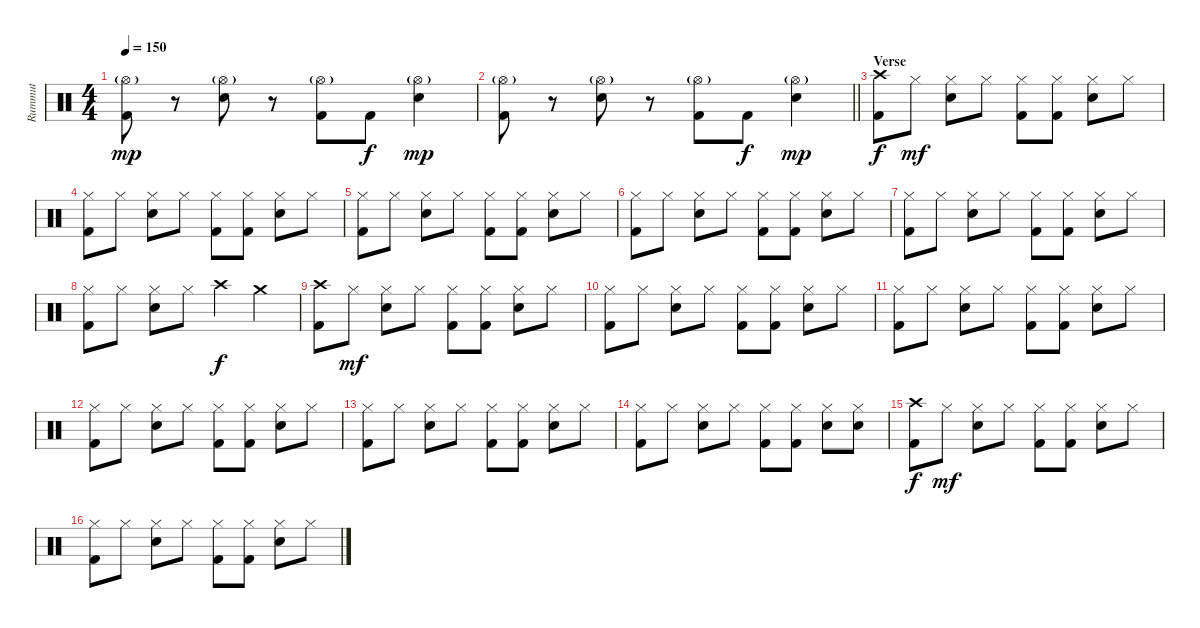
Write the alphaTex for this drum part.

\track ("Rummut" "Rummut") {instrument percussion bank 69}
\staff {score}
\articulation defaults
\ts (4 4)
\tempo 150
\clef neutral
\ks c
("Hi-Hat (open)"{g} "Kick (hit) 2").8{dy mp} r.8 ("Hi-Hat (open)"{g} "Snare (hit) 2").8 r.8 ("Hi-Hat (open)"{g} "Kick (hit) 2").8 "Kick (hit) 2".8{dy f} ("Hi-Hat (open)"{g} "Snare (hit) 2").4{dy mp} |
\barLineRight lightlight
("Hi-Hat (open)"{g} "Kick (hit) 2").8 r.8 ("Hi-Hat (open)"{g} "Snare (hit) 2").8 r.8 ("Hi-Hat (open)"{g} "Kick (hit) 2").8 "Kick (hit) 2".8{dy f} ("Hi-Hat (open)"{g} "Snare (hit) 2").4{dy mp} |
\section ("" "Verse")
("Crash high (hit)" "Kick (hit) 2").8{dy f} "Hi-Hat (closed)".8{dy mf} ("Hi-Hat (closed)" "Snare (hit) 2").8 "Hi-Hat (closed)".8 ("Hi-Hat (closed)" "Kick (hit) 2").8 ("Hi-Hat (closed)" "Kick (hit) 2").8 ("Hi-Hat (closed)" "Snare (hit) 2").8 "Hi-Hat (closed)".8 |
("Hi-Hat (closed)" "Kick (hit) 2").8 "Hi-Hat (closed)".8 ("Hi-Hat (closed)" "Snare (hit) 2").8 "Hi-Hat (closed)".8 ("Hi-Hat (closed)" "Kick (hit) 2").8 ("Hi-Hat (closed)" "Kick (hit) 2").8 ("Hi-Hat (closed)" "Snare (hit) 2").8 "Hi-Hat (closed)".8 |
("Hi-Hat (closed)" "Kick (hit) 2").8 "Hi-Hat (closed)".8 ("Hi-Hat (closed)" "Snare (hit) 2").8 "Hi-Hat (closed)".8 ("Hi-Hat (closed)" "Kick (hit) 2").8 ("Hi-Hat (closed)" "Kick (hit) 2").8 ("Hi-Hat (closed)" "Snare (hit) 2").8 "Hi-Hat (closed)".8 |
("Hi-Hat (closed)" "Kick (hit) 2").8 "Hi-Hat (closed)".8 ("Hi-Hat (closed)" "Snare (hit) 2").8 "Hi-Hat (closed)".8 ("Hi-Hat (closed)" "Kick (hit) 2").8 ("Hi-Hat (closed)" "Kick (hit) 2").8 ("Hi-Hat (closed)" "Snare (hit) 2").8 "Hi-Hat (closed)".8 |
("Hi-Hat (closed)" "Kick (hit) 2").8 "Hi-Hat (closed)".8 ("Hi-Hat (closed)" "Snare (hit) 2").8 "Hi-Hat (closed)".8 ("Hi-Hat (closed)" "Kick (hit) 2").8 ("Hi-Hat (closed)" "Kick (hit) 2").8 ("Hi-Hat (closed)" "Snare (hit) 2").8 "Hi-Hat (closed)".8 |
("Hi-Hat (closed)" "Kick (hit) 2").8 "Hi-Hat (closed)".8 ("Hi-Hat (closed)" "Snare (hit) 2").8 "Hi-Hat (closed)".8 "Crash high (hit)".4{dy f} "Crash medium (hit)".4 |
("Crash high (hit)" "Kick (hit) 2").8 "Hi-Hat (closed)".8{dy mf} ("Hi-Hat (closed)" "Snare (hit) 2").8 "Hi-Hat (closed)".8 ("Hi-Hat (closed)" "Kick (hit) 2").8 ("Hi-Hat (closed)" "Kick (hit) 2").8 ("Hi-Hat (closed)" "Snare (hit) 2").8 "Hi-Hat (closed)".8 |
("Hi-Hat (closed)" "Kick (hit) 2").8 "Hi-Hat (closed)".8 ("Hi-Hat (closed)" "Snare (hit) 2").8 "Hi-Hat (closed)".8 ("Hi-Hat (closed)" "Kick (hit) 2").8 ("Hi-Hat (closed)" "Kick (hit) 2").8 ("Hi-Hat (closed)" "Snare (hit) 2").8 "Hi-Hat (closed)".8 |
("Hi-Hat (closed)" "Kick (hit) 2").8 "Hi-Hat (closed)".8 ("Hi-Hat (closed)" "Snare (hit) 2").8 "Hi-Hat (closed)".8 ("Hi-Hat (closed)" "Kick (hit) 2").8 ("Hi-Hat (closed)" "Kick (hit) 2").8 ("Hi-Hat (closed)" "Snare (hit) 2").8 "Hi-Hat (closed)".8 |
("Hi-Hat (closed)" "Kick (hit) 2").8 "Hi-Hat (closed)".8 ("Hi-Hat (closed)" "Snare (hit) 2").8 "Hi-Hat (closed)".8 ("Hi-Hat (closed)" "Kick (hit) 2").8 ("Hi-Hat (closed)" "Kick (hit) 2").8 ("Hi-Hat (closed)" "Snare (hit) 2").8 "Hi-Hat (closed)".8 |
("Hi-Hat (closed)" "Kick (hit) 2").8 "Hi-Hat (closed)".8 ("Hi-Hat (closed)" "Snare (hit) 2").8 "Hi-Hat (closed)".8 ("Hi-Hat (closed)" "Kick (hit) 2").8 ("Hi-Hat (closed)" "Kick (hit) 2").8 ("Hi-Hat (closed)" "Snare (hit) 2").8 "Hi-Hat (closed)".8 |
("Hi-Hat (closed)" "Kick (hit) 2").8 "Hi-Hat (closed)".8 ("Hi-Hat (closed)" "Snare (hit) 2").8 "Hi-Hat (closed)".8 ("Hi-Hat (closed)" "Kick (hit) 2").8 ("Hi-Hat (closed)" "Kick (hit) 2").8 ("Hi-Hat (closed)" "Snare (hit) 2").8 ("Hi-Hat (closed)" "Snare (hit) 2").8 |
("Crash high (hit)" "Kick (hit) 2").8{dy f} "Hi-Hat (closed)".8{dy mf} ("Hi-Hat (closed)" "Snare (hit) 2").8 "Hi-Hat (closed)".8 ("Hi-Hat (closed)" "Kick (hit) 2").8 ("Hi-Hat (closed)" "Kick (hit) 2").8 ("Hi-Hat (closed)" "Snare (hit) 2").8 "Hi-Hat (closed)".8 |
("Hi-Hat (closed)" "Kick (hit) 2").8 "Hi-Hat (closed)".8 ("Hi-Hat (closed)" "Snare (hit) 2").8 "Hi-Hat (closed)".8 ("Hi-Hat (closed)" "Kick (hit) 2").8 ("Hi-Hat (closed)" "Kick (hit) 2").8 ("Hi-Hat (closed)" "Snare (hit) 2").8 "Hi-Hat (closed)".8
